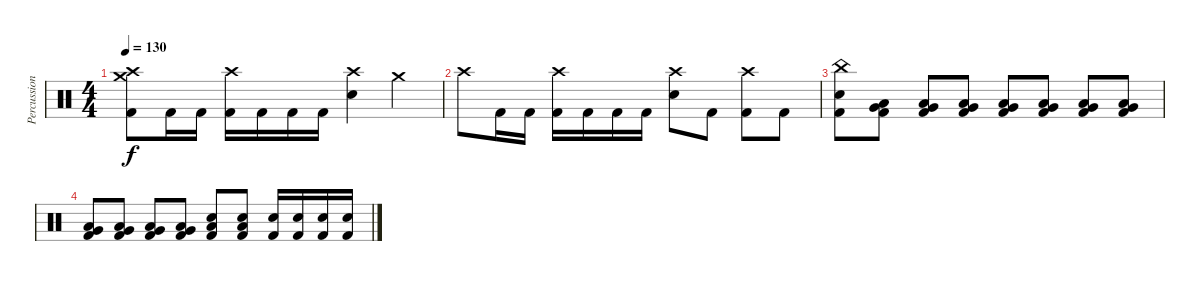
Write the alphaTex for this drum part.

\track ("Percussion" "Percussion") {instrument percussion}
\staff {score}
\articulation defaults
\ts (4 4)
\tempo 130
\clef neutral
\ks c
("Crash medium (hit)" "Crash high (hit)" "Kick (hit) 2").8{dy f} "Kick (hit) 2".16 "Kick (hit) 2".16 ("Crash high (hit)" "Kick (hit) 2").16 "Kick (hit) 2".16 "Kick (hit) 2".16 "Kick (hit) 2".16 ("Crash high (hit)" "Electric Snare (hit)").4 "Crash medium (hit)".4 |
"Crash high (hit)".8 "Kick (hit) 2".16 "Kick (hit) 2".16 ("Crash high (hit)" "Kick (hit) 2").16 "Kick (hit) 2".16 "Kick (hit) 2".16 "Kick (hit) 2".16 ("Crash high (hit)" "Electric Snare (hit)").8 "Kick (hit) 2".8 ("Crash high (hit)" "Kick (hit) 2").8 "Kick (hit) 2".8 |
("China (hit)" "Electric Snare (hit)" "Kick (hit) 2").8 ("Very Low Tom (hit)" "Low Floor Tom (hit)" "Kick (hit) 2").8 ("Very Low Tom (hit)" "Low Floor Tom (hit)" "Kick (hit) 2").8 ("Very Low Tom (hit)" "Low Floor Tom (hit)" "Kick (hit) 2").8 ("Very Low Tom (hit)" "Low Floor Tom (hit)" "Kick (hit) 2").8 ("Very Low Tom (hit)" "Low Floor Tom (hit)" "Kick (hit) 2").8 ("Very Low Tom (hit)" "Low Floor Tom (hit)" "Kick (hit) 2").8 ("Very Low Tom (hit)" "Low Floor Tom (hit)" "Kick (hit) 2").8 |
("Very Low Tom (hit)" "Low Floor Tom (hit)" "Kick (hit) 2").8 ("Very Low Tom (hit)" "Low Floor Tom (hit)" "Kick (hit) 2").8 ("Very Low Tom (hit)" "Low Floor Tom (hit)" "Kick (hit) 2").8 ("Very Low Tom (hit)" "Low Floor Tom (hit)" "Kick (hit) 2").8 ("Electric Snare (hit)" "Low Floor Tom (hit)" "Kick (hit) 2").8 ("Electric Snare (hit)" "Low Floor Tom (hit)" "Kick (hit) 2").8 ("Electric Snare (hit)" "Kick (hit) 2").16 ("Electric Snare (hit)" "Kick (hit) 2").16 ("Electric Snare (hit)" "Kick (hit) 2").16 ("Electric Snare (hit)" "Kick (hit) 2").16
